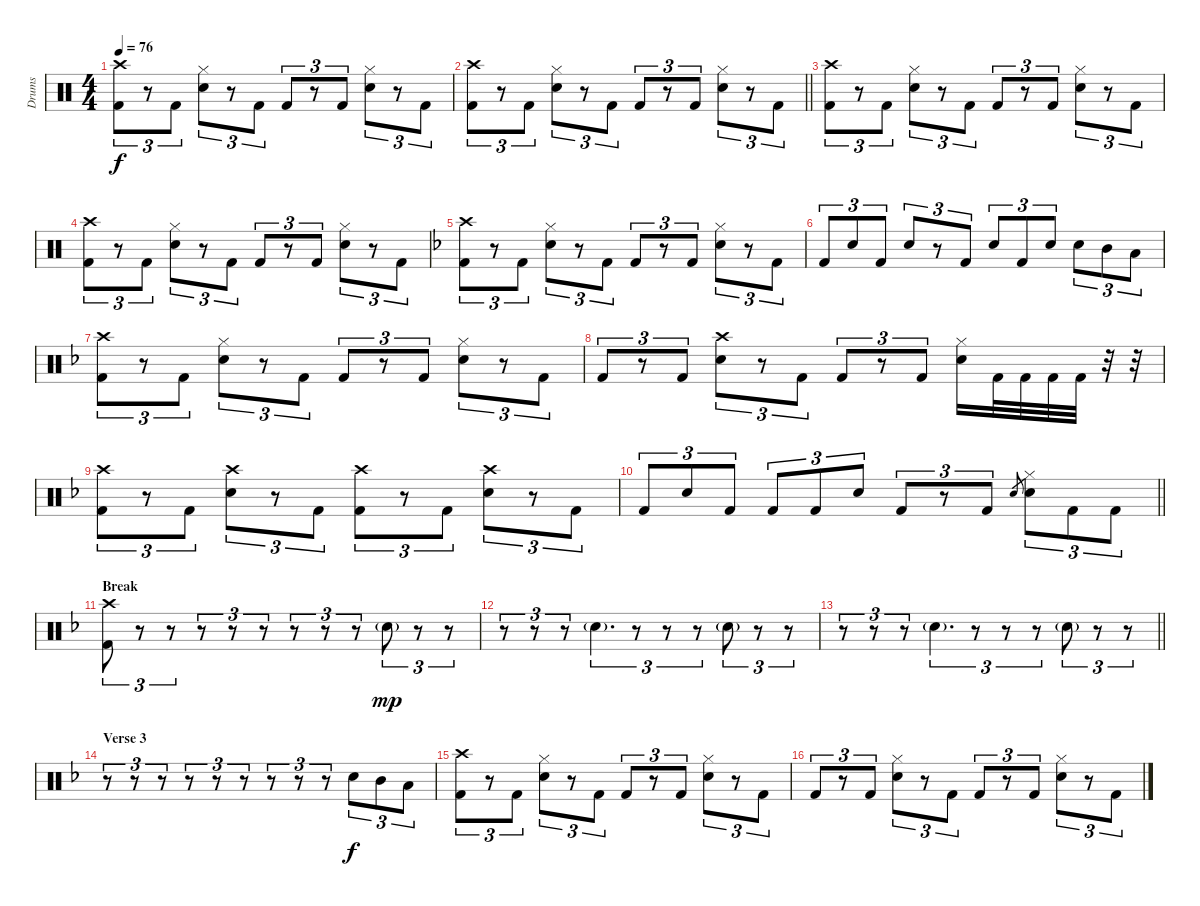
\track ("Drums" "Drums") {instrument percussion}
\staff {score}
\articulation defaults
\ts (4 4)
\tempo 76
\clef neutral
\ks c
("Crash high (hit)" "Kick (hit) 2").8{tu (3 2) dy f} r.8{tu (3 2)} "Kick (hit) 2".8{tu (3 2)} ("Hi-Hat (closed)" "Electric Snare (hit)").8{tu (3 2)} r.8{tu (3 2)} "Kick (hit) 2".8{tu (3 2)} "Kick (hit) 2".8{tu (3 2)} r.8{tu (3 2)} "Kick (hit) 2".8{tu (3 2)} ("Hi-Hat (closed)" "Electric Snare (hit)").8{tu (3 2)} r.8{tu (3 2)} "Kick (hit) 2".8{tu (3 2)} |
\barLineRight lightlight
("Crash high (hit)" "Kick (hit) 2").8{tu (3 2)} r.8{tu (3 2)} "Kick (hit) 2".8{tu (3 2)} ("Hi-Hat (closed)" "Electric Snare (hit)").8{tu (3 2)} r.8{tu (3 2)} "Kick (hit) 2".8{tu (3 2)} "Kick (hit) 2".8{tu (3 2)} r.8{tu (3 2)} "Kick (hit) 2".8{tu (3 2)} ("Hi-Hat (closed)" "Electric Snare (hit)").8{tu (3 2)} r.8{tu (3 2)} "Kick (hit) 2".8{tu (3 2)} |
("Crash high (hit)" "Kick (hit) 2").8{tu (3 2)} r.8{tu (3 2)} "Kick (hit) 2".8{tu (3 2)} ("Hi-Hat (closed)" "Electric Snare (hit)").8{tu (3 2)} r.8{tu (3 2)} "Kick (hit) 2".8{tu (3 2)} "Kick (hit) 2".8{tu (3 2)} r.8{tu (3 2)} "Kick (hit) 2".8{tu (3 2)} ("Hi-Hat (closed)" "Electric Snare (hit)").8{tu (3 2)} r.8{tu (3 2)} "Kick (hit) 2".8{tu (3 2)} |
("Crash high (hit)" "Kick (hit) 2").8{tu (3 2)} r.8{tu (3 2)} "Kick (hit) 2".8{tu (3 2)} ("Hi-Hat (closed)" "Electric Snare (hit)").8{tu (3 2)} r.8{tu (3 2)} "Kick (hit) 2".8{tu (3 2)} "Kick (hit) 2".8{tu (3 2)} r.8{tu (3 2)} "Kick (hit) 2".8{tu (3 2)} ("Hi-Hat (closed)" "Electric Snare (hit)").8{tu (3 2)} r.8{tu (3 2)} "Kick (hit) 2".8{tu (3 2)} |
\ks f
("Crash high (hit)" "Kick (hit) 2").8{tu (3 2)} r.8{tu (3 2)} "Kick (hit) 2".8{tu (3 2)} ("Hi-Hat (closed)" "Electric Snare (hit)").8{tu (3 2)} r.8{tu (3 2)} "Kick (hit) 2".8{tu (3 2)} "Kick (hit) 2".8{tu (3 2)} r.8{tu (3 2)} "Kick (hit) 2".8{tu (3 2)} ("Hi-Hat (closed)" "Electric Snare (hit)").8{tu (3 2)} r.8{tu (3 2)} "Kick (hit) 2".8{tu (3 2)} |
"Kick (hit) 2".8{tu (3 2)} "Electric Snare (hit)".8{tu (3 2)} "Kick (hit) 2".8{tu (3 2)} "Electric Snare (hit)".8{tu (3 2)} r.8{tu (3 2)} "Kick (hit) 2".8{tu (3 2)} "Electric Snare (hit)".8{tu (3 2)} "Kick (hit) 2".8{tu (3 2)} "Electric Snare (hit)".8{tu (3 2)} "Electric Snare (hit)".8{tu (3 2)} "Mid Tom (hit)".8{tu (3 2)} "Low Tom (hit)".8{tu (3 2)} |
("Crash high (hit)" "Kick (hit) 2").8{tu (3 2)} r.8{tu (3 2)} "Kick (hit) 2".8{tu (3 2)} ("Hi-Hat (closed)" "Electric Snare (hit)").8{tu (3 2)} r.8{tu (3 2)} "Kick (hit) 2".8{tu (3 2)} "Kick (hit) 2".8{tu (3 2)} r.8{tu (3 2)} "Kick (hit) 2".8{tu (3 2)} ("Hi-Hat (closed)" "Electric Snare (hit)").8{tu (3 2)} r.8{tu (3 2)} "Kick (hit) 2".8{tu (3 2)} |
"Kick (hit) 2".8{tu (3 2)} r.8{tu (3 2)} "Kick (hit) 2".8{tu (3 2)} ("Crash high (hit)" "Electric Snare (hit)").8{tu (3 2)} r.8{tu (3 2)} "Kick (hit) 2".8{tu (3 2)} "Kick (hit) 2".8{tu (3 2)} r.8{tu (3 2)} "Kick (hit) 2".8{tu (3 2)} ("Hi-Hat (closed)" "Electric Snare (hit)").16 "Kick (hit) 2".32 "Kick (hit) 2".32 "Kick (hit) 2".32 "Kick (hit) 2".32 r.32 r.32 |
("Crash high (hit)" "Kick (hit) 2").8{tu (3 2)} r.8{tu (3 2)} "Kick (hit) 2".8{tu (3 2)} ("Crash high (hit)" "Electric Snare (hit)").8{tu (3 2)} r.8{tu (3 2)} "Kick (hit) 2".8{tu (3 2)} ("Crash high (hit)" "Kick (hit) 2").8{tu (3 2)} r.8{tu (3 2)} "Kick (hit) 2".8{tu (3 2)} ("Crash high (hit)" "Electric Snare (hit)").8{tu (3 2)} r.8{tu (3 2)} "Kick (hit) 2".8{tu (3 2)} |
\barLineRight lightlight "Kick (hit) 2".8{tu (3 2)} "Electric Snare (hit)".8{tu (3 2)} "Kick (hit) 2".8{tu (3 2)} "Kick (hit) 2".8{tu (3 2)} "Kick (hit) 2".8{tu (3 2)} "Electric Snare (hit)".8{tu (3 2)} "Kick (hit) 2".8{tu (3 2)}
r.8{tu (3 2)} "Kick (hit) 2".8{tu (3 2)} "Electric Snare (hit)".8{gr} ("Hi-Hat (closed)" "Electric Snare (hit)").8{tu (3 2)} "Kick (hit) 2".8{tu (3 2)} "Kick (hit) 2".8{tu (3 2)} |
\section ("" "Break")
("Crash high (hit)" "Kick (hit) 2").8{tu (3 2)} r.8{tu (3 2)} r.8{tu (3 2)} r.8{tu (3 2)} r.8{tu (3 2)} r.8{tu (3 2)} r.8{tu (3 2)} r.8{tu (3 2)} r.8{tu (3 2)} "Hand Clap (hit)"{g}.8{tu (3 2) dy mp} r.8{tu (3 2)} r.8{tu (3 2)} |
r.8{tu (3 2)} r.8{tu (3 2)} r.8{tu (3 2)} "Hand Clap (hit)"{g}.4{d tu (3 2)} r.8{tu (3 2)} r.8{tu (3 2)} r.8{tu (3 2)} "Hand Clap (hit)"{g}.8{tu (3 2)} r.8{tu (3 2)} r.8{tu (3 2)} |
\barLineRight lightlight
r.8{tu (3 2)} r.8{tu (3 2)} r.8{tu (3 2)} "Hand Clap (hit)"{g}.4{d tu (3 2)} r.8{tu (3 2)} r.8{tu (3 2)} r.8{tu (3 2)} "Hand Clap (hit)"{g}.8{tu (3 2)} r.8{tu (3 2)} r.8{tu (3 2)} |
\section ("" "Verse 3")
r.8{tu (3 2)} r.8{tu (3 2)} r.8{tu (3 2)} r.8{tu (3 2)} r.8{tu (3 2)} r.8{tu (3 2)} r.8{tu (3 2)} r.8{tu (3 2)} r.8{tu (3 2)} "Electric Snare (hit)".8{tu (3 2) dy f} "Mid Tom (hit)".8{tu (3 2)} "Low Tom (hit)".8{tu (3 2)} |
("Crash high (hit)" "Kick (hit) 2").8{tu (3 2)} r.8{tu (3 2)} "Kick (hit) 2".8{tu (3 2)} ("Hi-Hat (closed)" "Electric Snare (hit)").8{tu (3 2)} r.8{tu (3 2)} "Kick (hit) 2".8{tu (3 2)} "Kick (hit) 2".8{tu (3 2)} r.8{tu (3 2)} "Kick (hit) 2".8{tu (3 2)} ("Hi-Hat (closed)" "Electric Snare (hit)").8{tu (3 2)} r.8{tu (3 2)} "Kick (hit) 2".8{tu (3 2)} |
"Kick (hit) 2".8{tu (3 2)} r.8{tu (3 2)} "Kick (hit) 2".8{tu (3 2)} ("Hi-Hat (closed)" "Electric Snare (hit)").8{tu (3 2)} r.8{tu (3 2)} "Kick (hit) 2".8{tu (3 2)} "Kick (hit) 2".8{tu (3 2)} r.8{tu (3 2)} "Kick (hit) 2".8{tu (3 2)} ("Hi-Hat (closed)" "Electric Snare (hit)").8{tu (3 2)} r.8{tu (3 2)} "Kick (hit) 2".8{tu (3 2)}
